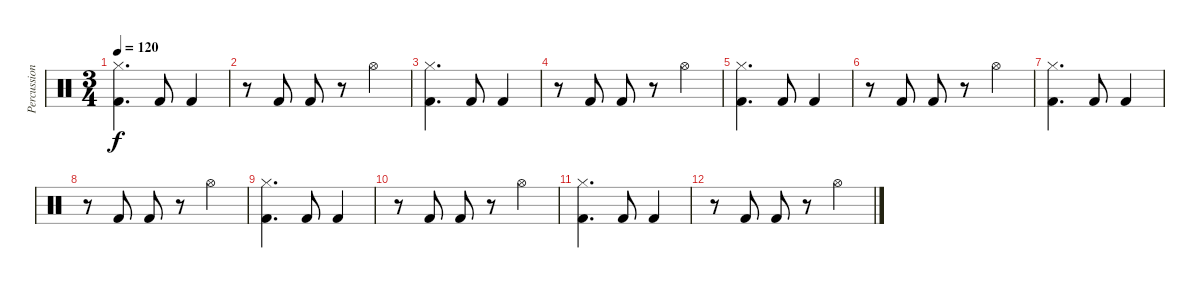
\track ("Percussion" "Percussion") {instrument percussion}
\staff {score}
\articulation defaults
\ts (3 4)
\tempo 120
\clef neutral
\ks c
("Kick (hit) 2" "Hi-Hat (closed)").4{d dy f} "Kick (hit) 2".8 "Kick (hit) 2".4 |
r.8 "Kick (hit) 2".8 "Kick (hit) 2".8 r.8 "Hi-Hat (open)".4 |
("Kick (hit) 2" "Hi-Hat (closed)").4{d} "Kick (hit) 2".8 "Kick (hit) 2".4 |
r.8 "Kick (hit) 2".8 "Kick (hit) 2".8 r.8 "Hi-Hat (open)".4 |
("Kick (hit) 2" "Hi-Hat (closed)").4{d} "Kick (hit) 2".8 "Kick (hit) 2".4 |
r.8 "Kick (hit) 2".8 "Kick (hit) 2".8 r.8 "Hi-Hat (open)".4 |
("Kick (hit) 2" "Hi-Hat (closed)").4{d} "Kick (hit) 2".8 "Kick (hit) 2".4 |
r.8 "Kick (hit) 2".8 "Kick (hit) 2".8 r.8 "Hi-Hat (open)".4 |
("Kick (hit) 2" "Hi-Hat (closed)").4{d} "Kick (hit) 2".8 "Kick (hit) 2".4 |
r.8 "Kick (hit) 2".8 "Kick (hit) 2".8 r.8 "Hi-Hat (open)".4 |
("Kick (hit) 2" "Hi-Hat (closed)").4{d} "Kick (hit) 2".8 "Kick (hit) 2".4 |
r.8 "Kick (hit) 2".8 "Kick (hit) 2".8 r.8 "Hi-Hat (open)".4
